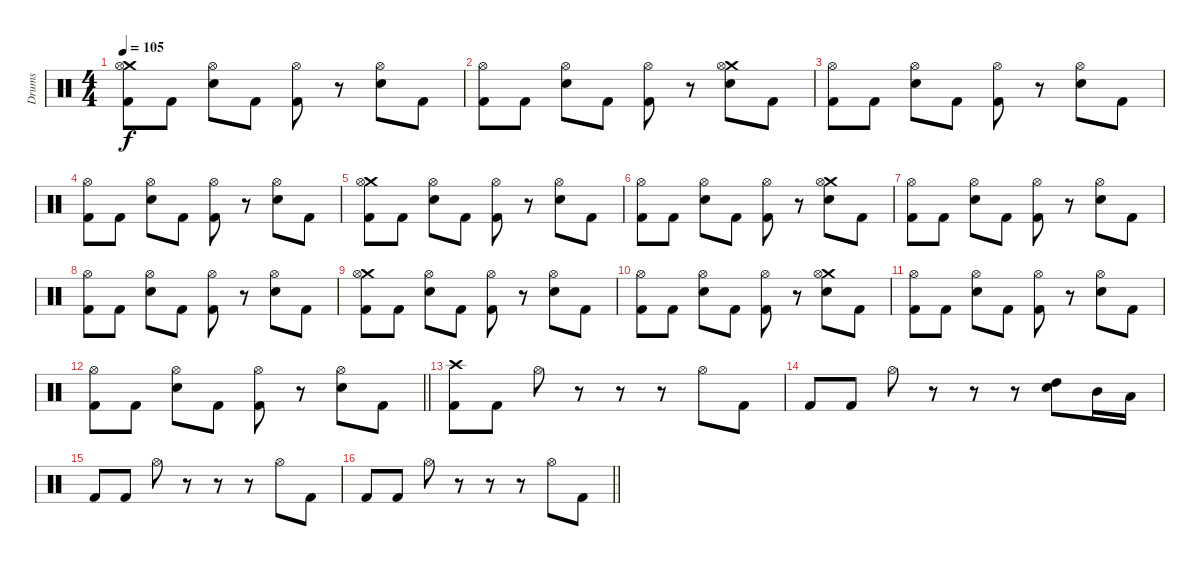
\track ("Drums" "Drums") {instrument percussion}
\staff {score}
\articulation defaults
\ts (4 4)
\tempo 105
\clef neutral
\ks c
("Crash medium (hit)" "Hi-Hat (open)" "Kick (hit) 2").8{dy f} "Kick (hit) 2".8 ("Hi-Hat (open)" "Electric Snare (hit)").8 "Kick (hit) 2".8 ("Hi-Hat (open)" "Kick (hit) 2").8 r.8 ("Hi-Hat (open)" "Electric Snare (hit)").8 "Kick (hit) 2".8 |
("Hi-Hat (open)" "Kick (hit) 2").8 "Kick (hit) 2".8 ("Hi-Hat (open)" "Electric Snare (hit)").8 "Kick (hit) 2".8 ("Hi-Hat (open)" "Kick (hit) 2").8 r.8 ("Crash medium (hit)" "Hi-Hat (open)" "Electric Snare (hit)").8 "Kick (hit) 2".8 |
("Hi-Hat (open)" "Kick (hit) 2").8 "Kick (hit) 2".8 ("Hi-Hat (open)" "Electric Snare (hit)").8 "Kick (hit) 2".8 ("Hi-Hat (open)" "Kick (hit) 2").8 r.8 ("Hi-Hat (open)" "Electric Snare (hit)").8 "Kick (hit) 2".8 |
("Hi-Hat (open)" "Kick (hit) 2").8 "Kick (hit) 2".8 ("Hi-Hat (open)" "Electric Snare (hit)").8 "Kick (hit) 2".8 ("Hi-Hat (open)" "Kick (hit) 2").8 r.8 ("Hi-Hat (open)" "Electric Snare (hit)").8 "Kick (hit) 2".8 |
("Crash medium (hit)" "Hi-Hat (open)" "Kick (hit) 2").8 "Kick (hit) 2".8 ("Hi-Hat (open)" "Electric Snare (hit)").8 "Kick (hit) 2".8 ("Hi-Hat (open)" "Kick (hit) 2").8 r.8 ("Hi-Hat (open)" "Electric Snare (hit)").8 "Kick (hit) 2".8 |
("Hi-Hat (open)" "Kick (hit) 2").8 "Kick (hit) 2".8 ("Hi-Hat (open)" "Electric Snare (hit)").8 "Kick (hit) 2".8 ("Hi-Hat (open)" "Kick (hit) 2").8 r.8 ("Crash medium (hit)" "Hi-Hat (open)" "Electric Snare (hit)").8 "Kick (hit) 2".8 |
("Hi-Hat (open)" "Kick (hit) 2").8 "Kick (hit) 2".8 ("Hi-Hat (open)" "Electric Snare (hit)").8 "Kick (hit) 2".8 ("Hi-Hat (open)" "Kick (hit) 2").8 r.8 ("Hi-Hat (open)" "Electric Snare (hit)").8 "Kick (hit) 2".8 |
("Hi-Hat (open)" "Kick (hit) 2").8 "Kick (hit) 2".8 ("Hi-Hat (open)" "Electric Snare (hit)").8 "Kick (hit) 2".8 ("Hi-Hat (open)" "Kick (hit) 2").8 r.8 ("Hi-Hat (open)" "Electric Snare (hit)").8 "Kick (hit) 2".8 |
("Crash medium (hit)" "Hi-Hat (open)" "Kick (hit) 2").8 "Kick (hit) 2".8 ("Hi-Hat (open)" "Electric Snare (hit)").8 "Kick (hit) 2".8 ("Hi-Hat (open)" "Kick (hit) 2").8 r.8 ("Hi-Hat (open)" "Electric Snare (hit)").8 "Kick (hit) 2".8 |
("Hi-Hat (open)" "Kick (hit) 2").8 "Kick (hit) 2".8 ("Hi-Hat (open)" "Electric Snare (hit)").8 "Kick (hit) 2".8 ("Hi-Hat (open)" "Kick (hit) 2").8 r.8 ("Crash medium (hit)" "Hi-Hat (open)" "Electric Snare (hit)").8 "Kick (hit) 2".8 |
("Hi-Hat (open)" "Kick (hit) 2").8 "Kick (hit) 2".8 ("Hi-Hat (open)" "Electric Snare (hit)").8 "Kick (hit) 2".8 ("Hi-Hat (open)" "Kick (hit) 2").8 r.8 ("Hi-Hat (open)" "Electric Snare (hit)").8 "Kick (hit) 2".8 |
\barLineRight lightlight
("Hi-Hat (open)" "Kick (hit) 2").8 "Kick (hit) 2".8 ("Hi-Hat (open)" "Electric Snare (hit)").8 "Kick (hit) 2".8 ("Hi-Hat (open)" "Kick (hit) 2").8 r.8 ("Hi-Hat (open)" "Electric Snare (hit)").8 "Kick (hit) 2".8 |
\section ("" "")
("Crash high (hit)" "Kick (hit) 2").8 "Kick (hit) 2".8 "Hi-Hat (open)".8 r.8 r.8 r.8 "Hi-Hat (open)".8 "Kick (hit) 2".8 |
"Kick (hit) 2".8 "Kick (hit) 2".8 "Hi-Hat (open)".8 r.8 r.8 r.8 ("Electric Snare (hit)" "High Tom (hit)").8 "Mid Tom (hit)".16 "Low Tom (hit)".16 |
"Kick (hit) 2".8 "Kick (hit) 2".8 "Hi-Hat (open)".8 r.8 r.8 r.8 "Hi-Hat (open)".8 "Kick (hit) 2".8 |
\barLineRight lightlight "Kick (hit) 2".8 "Kick (hit) 2".8 "Hi-Hat (open)".8
r.8 r.8 r.8 "Hi-Hat (open)".8 "Kick (hit) 2".8
